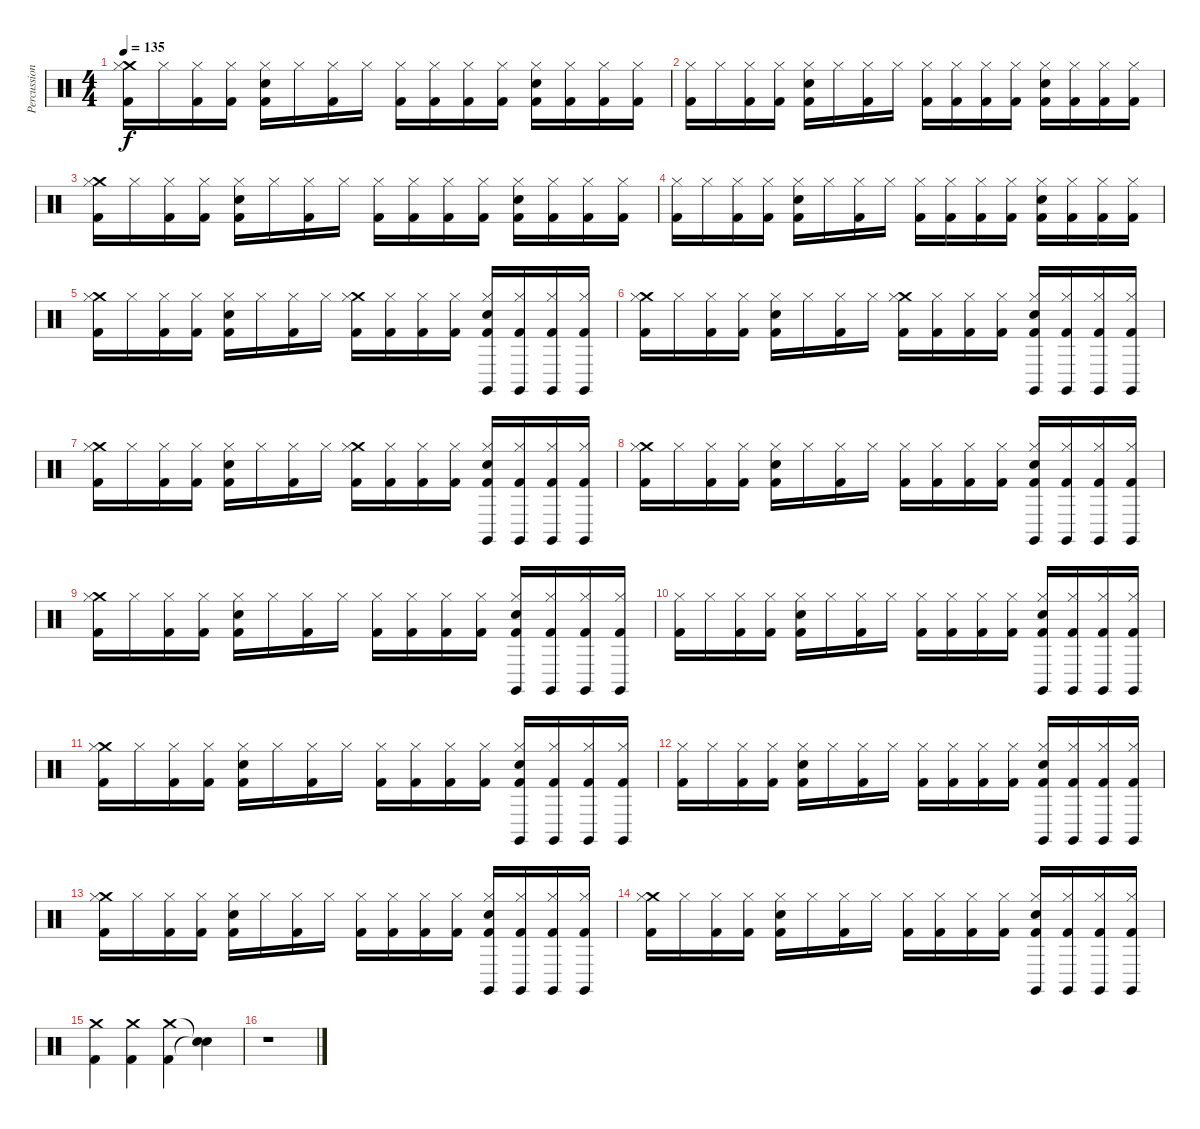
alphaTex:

\track ("Percussion" "Percussion") {instrument percussion}
\staff {score}
\articulation defaults
\ts (4 4)
\tempo 135
\clef neutral
\ks c
("Crash medium (hit)" "Kick (hit) 2" "Hi-Hat (closed)").16{dy f balance 0} "Hi-Hat (closed)".16 ("Kick (hit) 2" "Hi-Hat (closed)").16{balance 2} ("Kick (hit) 2" "Hi-Hat (closed)").16 ("Electric Snare (hit)" "Kick (hit) 2" "Hi-Hat (closed)").16{balance 4} "Hi-Hat (closed)".16 ("Kick (hit) 2" "Hi-Hat (closed)").16{balance 6} "Hi-Hat (closed)".16 ("Kick (hit) 2" "Hi-Hat (closed)").16{balance 8} ("Kick (hit) 2" "Hi-Hat (closed)").16 ("Kick (hit) 2" "Hi-Hat (closed)").16{balance 10} ("Kick (hit) 2" "Hi-Hat (closed)").16 ("Electric Snare (hit)" "Kick (hit) 2" "Hi-Hat (closed)").16{volume 13 balance 12} ("Kick (hit) 2" "Hi-Hat (closed)").16 ("Kick (hit) 2" "Hi-Hat (closed)").16{balance 14} ("Kick (hit) 2" "Hi-Hat (closed)").16 |
("Kick (hit) 2" "Hi-Hat (closed)").16{balance 16} "Hi-Hat (closed)".16 ("Kick (hit) 2" "Hi-Hat (closed)").16{balance 14} ("Kick (hit) 2" "Hi-Hat (closed)").16 ("Electric Snare (hit)" "Kick (hit) 2" "Hi-Hat (closed)").16{balance 12} "Hi-Hat (closed)".16 ("Kick (hit) 2" "Hi-Hat (closed)").16{balance 10} "Hi-Hat (closed)".16 ("Kick (hit) 2" "Hi-Hat (closed)").16{balance 8} ("Kick (hit) 2" "Hi-Hat (closed)").16 ("Kick (hit) 2" "Hi-Hat (closed)").16{balance 6} ("Kick (hit) 2" "Hi-Hat (closed)").16 ("Electric Snare (hit)" "Kick (hit) 2" "Hi-Hat (closed)").16{balance 4} ("Kick (hit) 2" "Hi-Hat (closed)").16 ("Kick (hit) 2" "Hi-Hat (closed)").16{balance 2} ("Kick (hit) 2" "Hi-Hat (closed)").16 |
("Crash medium (hit)" "Kick (hit) 2" "Hi-Hat (closed)").16{balance 0} "Hi-Hat (closed)".16 ("Kick (hit) 2" "Hi-Hat (closed)").16{balance 2} ("Kick (hit) 2" "Hi-Hat (closed)").16 ("Electric Snare (hit)" "Kick (hit) 2" "Hi-Hat (closed)").16{balance 4} "Hi-Hat (closed)".16 ("Kick (hit) 2" "Hi-Hat (closed)").16{balance 6} "Hi-Hat (closed)".16 ("Kick (hit) 2" "Hi-Hat (closed)").16{balance 8} ("Kick (hit) 2" "Hi-Hat (closed)").16 ("Kick (hit) 2" "Hi-Hat (closed)").16{balance 10} ("Kick (hit) 2" "Hi-Hat (closed)").16 ("Electric Snare (hit)" "Kick (hit) 2" "Hi-Hat (closed)").16{volume 13 balance 12} ("Kick (hit) 2" "Hi-Hat (closed)").16 ("Kick (hit) 2" "Hi-Hat (closed)").16{balance 14} ("Kick (hit) 2" "Hi-Hat (closed)").16 |
("Kick (hit) 2" "Hi-Hat (closed)").16{balance 16} "Hi-Hat (closed)".16 ("Kick (hit) 2" "Hi-Hat (closed)").16{balance 14} ("Kick (hit) 2" "Hi-Hat (closed)").16 ("Electric Snare (hit)" "Kick (hit) 2" "Hi-Hat (closed)").16{balance 12} "Hi-Hat (closed)".16 ("Kick (hit) 2" "Hi-Hat (closed)").16{balance 10} "Hi-Hat (closed)".16 ("Kick (hit) 2" "Hi-Hat (closed)").16{balance 8} ("Kick (hit) 2" "Hi-Hat (closed)").16 ("Kick (hit) 2" "Hi-Hat (closed)").16{balance 6} ("Kick (hit) 2" "Hi-Hat (closed)").16 ("Electric Snare (hit)" "Kick (hit) 2" "Hi-Hat (closed)").16{balance 4} ("Kick (hit) 2" "Hi-Hat (closed)").16 ("Kick (hit) 2" "Hi-Hat (closed)").16{balance 2} ("Kick (hit) 2" "Hi-Hat (closed)").16 |
("Crash medium (hit)" "Kick (hit) 2" "Hi-Hat (closed)").16{balance 0} "Hi-Hat (closed)".16 ("Kick (hit) 2" "Hi-Hat (closed)").16{balance 2} ("Kick (hit) 2" "Hi-Hat (closed)").16 ("Electric Snare (hit)" "Kick (hit) 2" "Hi-Hat (closed)").16{balance 4} "Hi-Hat (closed)".16 ("Kick (hit) 2" "Hi-Hat (closed)").16{balance 6} "Hi-Hat (closed)".16 ("Crash medium (hit)" "Kick (hit) 2" "Hi-Hat (closed)").16{balance 8} ("Kick (hit) 2" "Hi-Hat (closed)").16 ("Kick (hit) 2" "Hi-Hat (closed)").16{balance 10} ("Kick (hit) 2" "Hi-Hat (closed)").16 ("Electric Snare (hit)" "Kick (hit) 2" "Claves (hit)" "Hi-Hat (closed)").16{volume 13 balance 12} ("Kick (hit) 2" "Claves (hit)" "Hi-Hat (closed)").16 ("Kick (hit) 2" "Claves (hit)" "Hi-Hat (closed)").16{balance 14} ("Kick (hit) 2" "Claves (hit)" "Hi-Hat (closed)").16 |
("Crash medium (hit)" "Kick (hit) 2" "Hi-Hat (closed)").16{balance 16} "Hi-Hat (closed)".16 ("Kick (hit) 2" "Hi-Hat (closed)").16{balance 14} ("Kick (hit) 2" "Hi-Hat (closed)").16 ("Electric Snare (hit)" "Kick (hit) 2" "Hi-Hat (closed)").16{balance 12} "Hi-Hat (closed)".16 ("Kick (hit) 2" "Hi-Hat (closed)").16{balance 10} "Hi-Hat (closed)".16 ("Crash medium (hit)" "Kick (hit) 2" "Hi-Hat (closed)").16{balance 8} ("Kick (hit) 2" "Hi-Hat (closed)").16 ("Kick (hit) 2" "Hi-Hat (closed)").16{balance 6} ("Kick (hit) 2" "Hi-Hat (closed)").16 ("Electric Snare (hit)" "Kick (hit) 2" "Claves (hit)" "Hi-Hat (closed)").16{balance 4} ("Kick (hit) 2" "Claves (hit)" "Hi-Hat (closed)").16 ("Kick (hit) 2" "Claves (hit)" "Hi-Hat (closed)").16{balance 2} ("Kick (hit) 2" "Claves (hit)" "Hi-Hat (closed)").16 |
("Crash medium (hit)" "Kick (hit) 2" "Hi-Hat (closed)").16{balance 0} "Hi-Hat (closed)".16 ("Kick (hit) 2" "Hi-Hat (closed)").16{balance 2} ("Kick (hit) 2" "Hi-Hat (closed)").16 ("Electric Snare (hit)" "Kick (hit) 2" "Hi-Hat (closed)").16{balance 4} "Hi-Hat (closed)".16 ("Kick (hit) 2" "Hi-Hat (closed)").16{balance 6} "Hi-Hat (closed)".16 ("Crash medium (hit)" "Kick (hit) 2" "Hi-Hat (closed)").16{balance 8} ("Kick (hit) 2" "Hi-Hat (closed)").16 ("Kick (hit) 2" "Hi-Hat (closed)").16{balance 10} ("Kick (hit) 2" "Hi-Hat (closed)").16 ("Electric Snare (hit)" "Kick (hit) 2" "Claves (hit)" "Hi-Hat (closed)").16{volume 13 balance 12} ("Kick (hit) 2" "Claves (hit)" "Hi-Hat (closed)").16 ("Kick (hit) 2" "Claves (hit)" "Hi-Hat (closed)").16{balance 14} ("Kick (hit) 2" "Claves (hit)" "Hi-Hat (closed)").16 |
("Crash medium (hit)" "Kick (hit) 2" "Hi-Hat (closed)").16{balance 16} "Hi-Hat (closed)".16 ("Kick (hit) 2" "Hi-Hat (closed)").16{balance 14} ("Kick (hit) 2" "Hi-Hat (closed)").16 ("Electric Snare (hit)" "Kick (hit) 2" "Hi-Hat (closed)").16{balance 12} "Hi-Hat (closed)".16 ("Kick (hit) 2" "Hi-Hat (closed)").16{balance 10} "Hi-Hat (closed)".16 ("Kick (hit) 2" "Hi-Hat (closed)").16{balance 8} ("Kick (hit) 2" "Hi-Hat (closed)").16 ("Kick (hit) 2" "Hi-Hat (closed)").16{balance 6} ("Kick (hit) 2" "Hi-Hat (closed)").16 ("Electric Snare (hit)" "Kick (hit) 2" "Claves (hit)" "Hi-Hat (closed)").16{balance 4} ("Kick (hit) 2" "Claves (hit)" "Hi-Hat (closed)").16 ("Kick (hit) 2" "Claves (hit)" "Hi-Hat (closed)").16{balance 2} ("Kick (hit) 2" "Claves (hit)" "Hi-Hat (closed)").16 |
("Crash medium (hit)" "Kick (hit) 2" "Hi-Hat (closed)").16{balance 0} "Hi-Hat (closed)".16 ("Kick (hit) 2" "Hi-Hat (closed)").16{balance 2} ("Kick (hit) 2" "Hi-Hat (closed)").16 ("Electric Snare (hit)" "Kick (hit) 2" "Hi-Hat (closed)").16{balance 4} "Hi-Hat (closed)".16 ("Kick (hit) 2" "Hi-Hat (closed)").16{balance 6} "Hi-Hat (closed)".16 ("Kick (hit) 2" "Hi-Hat (closed)").16{balance 8} ("Kick (hit) 2" "Hi-Hat (closed)").16 ("Kick (hit) 2" "Hi-Hat (closed)").16{balance 10} ("Kick (hit) 2" "Hi-Hat (closed)").16 ("Electric Snare (hit)" "Kick (hit) 2" "Claves (hit)" "Hi-Hat (closed)").16{volume 13 balance 12} ("Kick (hit) 2" "Claves (hit)" "Hi-Hat (closed)").16 ("Kick (hit) 2" "Claves (hit)" "Hi-Hat (closed)").16{balance 14} ("Kick (hit) 2" "Claves (hit)" "Hi-Hat (closed)").16 |
("Kick (hit) 2" "Hi-Hat (closed)").16{balance 16} "Hi-Hat (closed)".16 ("Kick (hit) 2" "Hi-Hat (closed)").16{balance 14} ("Kick (hit) 2" "Hi-Hat (closed)").16 ("Electric Snare (hit)" "Kick (hit) 2" "Hi-Hat (closed)").16{balance 12} "Hi-Hat (closed)".16 ("Kick (hit) 2" "Hi-Hat (closed)").16{balance 10} "Hi-Hat (closed)".16 ("Kick (hit) 2" "Hi-Hat (closed)").16{balance 8} ("Kick (hit) 2" "Hi-Hat (closed)").16 ("Kick (hit) 2" "Hi-Hat (closed)").16{balance 6} ("Kick (hit) 2" "Hi-Hat (closed)").16 ("Electric Snare (hit)" "Kick (hit) 2" "Claves (hit)" "Hi-Hat (closed)").16{balance 4} ("Kick (hit) 2" "Claves (hit)" "Hi-Hat (closed)").16 ("Kick (hit) 2" "Claves (hit)" "Hi-Hat (closed)").16{balance 2} ("Kick (hit) 2" "Claves (hit)" "Hi-Hat (closed)").16 |
("Crash medium (hit)" "Kick (hit) 2" "Hi-Hat (closed)").16{balance 0} "Hi-Hat (closed)".16 ("Kick (hit) 2" "Hi-Hat (closed)").16{balance 2} ("Kick (hit) 2" "Hi-Hat (closed)").16 ("Electric Snare (hit)" "Kick (hit) 2" "Hi-Hat (closed)").16{balance 4} "Hi-Hat (closed)".16 ("Kick (hit) 2" "Hi-Hat (closed)").16{balance 6} "Hi-Hat (closed)".16 ("Kick (hit) 2" "Hi-Hat (closed)").16{balance 8} ("Kick (hit) 2" "Hi-Hat (closed)").16 ("Kick (hit) 2" "Hi-Hat (closed)").16{balance 10} ("Kick (hit) 2" "Hi-Hat (closed)").16 ("Electric Snare (hit)" "Kick (hit) 2" "Claves (hit)" "Hi-Hat (closed)").16{volume 13 balance 12} ("Kick (hit) 2" "Claves (hit)" "Hi-Hat (closed)").16 ("Kick (hit) 2" "Claves (hit)" "Hi-Hat (closed)").16{balance 14} ("Kick (hit) 2" "Claves (hit)" "Hi-Hat (closed)").16 |
("Kick (hit) 2" "Hi-Hat (closed)").16{balance 16} "Hi-Hat (closed)".16 ("Kick (hit) 2" "Hi-Hat (closed)").16{balance 14} ("Kick (hit) 2" "Hi-Hat (closed)").16 ("Electric Snare (hit)" "Kick (hit) 2" "Hi-Hat (closed)").16{balance 12} "Hi-Hat (closed)".16 ("Kick (hit) 2" "Hi-Hat (closed)").16{balance 10} "Hi-Hat (closed)".16 ("Kick (hit) 2" "Hi-Hat (closed)").16{balance 8} ("Kick (hit) 2" "Hi-Hat (closed)").16 ("Kick (hit) 2" "Hi-Hat (closed)").16{balance 6} ("Kick (hit) 2" "Hi-Hat (closed)").16 ("Electric Snare (hit)" "Kick (hit) 2" "Claves (hit)" "Hi-Hat (closed)").16{balance 4} ("Kick (hit) 2" "Claves (hit)" "Hi-Hat (closed)").16 ("Kick (hit) 2" "Claves (hit)" "Hi-Hat (closed)").16{balance 2} ("Kick (hit) 2" "Claves (hit)" "Hi-Hat (closed)").16 |
("Crash medium (hit)" "Kick (hit) 2" "Hi-Hat (closed)").16{balance 0} "Hi-Hat (closed)".16 ("Kick (hit) 2" "Hi-Hat (closed)").16{balance 2} ("Kick (hit) 2" "Hi-Hat (closed)").16 ("Electric Snare (hit)" "Kick (hit) 2" "Hi-Hat (closed)").16{balance 4} "Hi-Hat (closed)".16 ("Kick (hit) 2" "Hi-Hat (closed)").16{balance 6} "Hi-Hat (closed)".16 ("Kick (hit) 2" "Hi-Hat (closed)").16{balance 8} ("Kick (hit) 2" "Hi-Hat (closed)").16 ("Kick (hit) 2" "Hi-Hat (closed)").16{balance 10} ("Kick (hit) 2" "Hi-Hat (closed)").16 ("Electric Snare (hit)" "Kick (hit) 2" "Claves (hit)" "Hi-Hat (closed)").16{volume 13 balance 12} ("Kick (hit) 2" "Claves (hit)" "Hi-Hat (closed)").16 ("Kick (hit) 2" "Claves (hit)" "Hi-Hat (closed)").16{balance 14} ("Kick (hit) 2" "Claves (hit)" "Hi-Hat (closed)").16 |
("Crash medium (hit)" "Kick (hit) 2" "Hi-Hat (closed)").16{balance 16} "Hi-Hat (closed)".16 ("Kick (hit) 2" "Hi-Hat (closed)").16{balance 14} ("Kick (hit) 2" "Hi-Hat (closed)").16 ("Electric Snare (hit)" "Kick (hit) 2" "Hi-Hat (closed)").16{balance 12} "Hi-Hat (closed)".16 ("Kick (hit) 2" "Hi-Hat (closed)").16{balance 10} "Hi-Hat (closed)".16 ("Kick (hit) 2" "Hi-Hat (closed)").16{balance 8} ("Kick (hit) 2" "Hi-Hat (closed)").16 ("Kick (hit) 2" "Hi-Hat (closed)").16{balance 6} ("Kick (hit) 2" "Hi-Hat (closed)").16 ("Electric Snare (hit)" "Kick (hit) 2" "Claves (hit)" "Hi-Hat (closed)").16{balance 4} ("Kick (hit) 2" "Claves (hit)" "Hi-Hat (closed)").16 ("Kick (hit) 2" "Claves (hit)" "Hi-Hat (closed)").16{balance 2} ("Kick (hit) 2" "Claves (hit)" "Hi-Hat (closed)").16 |
("Crash medium (hit)" "Kick (hit) 2").4 ("Crash medium (hit)" "Kick (hit) 2").4 ("Crash medium (hit)" "Kick (hit) 2").4 ("Snare (hit)"{t} "Snare (hit)"{t}).4 |
r.1
